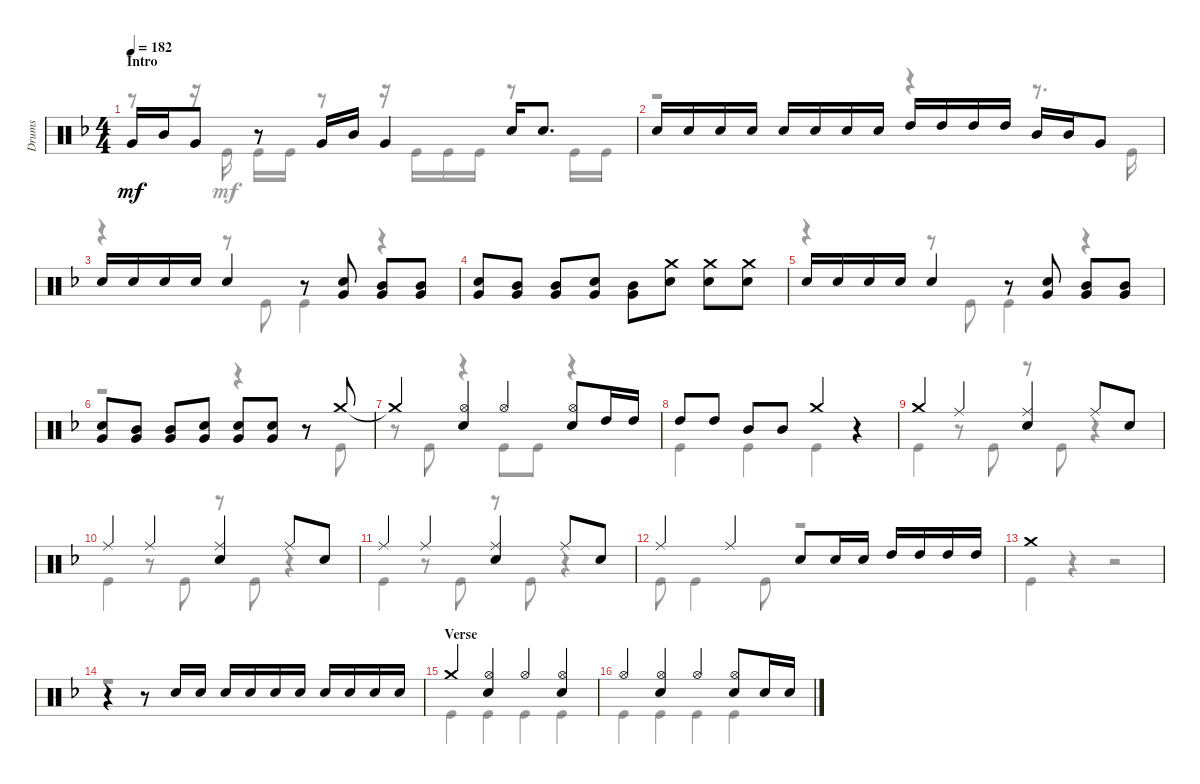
\track ("Drums" "Drums") {instrument percussion}
\staff {score}
\articulation defaults
\voice
\ts (4 4)
\section ("" "Intro")
\tempo 182
\clef neutral
\ks f "Very Low Tom (hit)".16{dy mf} "Mid Tom (hit)".16 "Very Low Tom (hit)".8
r.8 "Very Low Tom (hit)".16 "Mid Tom (hit)".16 "Very Low Tom (hit)".4 "Snare (hit) 2".16 "Snare (hit) 2".8{d} |
"Snare (hit) 2".16 "Snare (hit) 2".16 "Snare (hit) 2".16 "Snare (hit) 2".16 "Snare (hit) 2".16 "Snare (hit) 2".16 "Snare (hit) 2".16 "Snare (hit) 2".16 "High Tom (hit)".16 "High Tom (hit)".16 "High Tom (hit)".16 "High Tom (hit)".16 "Mid Tom (hit)".16 "Mid Tom (hit)".16 "Very Low Tom (hit)".8 |
"Snare (hit) 2".16 "Snare (hit) 2".16 "Snare (hit) 2".16 "Snare (hit) 2".16 "Snare (hit) 2".4 r.8 ("Snare (hit) 2" "Very Low Tom (hit)").8 ("Mid Tom (hit)" "Very Low Tom (hit)").8 ("Mid Tom (hit)" "Very Low Tom (hit)").8 |
("Very Low Tom (hit)" "Snare (hit) 2").8 ("Very Low Tom (hit)" "Mid Tom (hit)").8 ("Mid Tom (hit)" "Very Low Tom (hit)").8 ("Very Low Tom (hit)" "Snare (hit) 2").8 ("Very Low Tom (hit)" "Mid Tom (hit)").8 ("Snare (hit) 2" "Crash medium (hit)").8 ("Snare (hit) 2" "Crash medium (hit)").8 ("Snare (hit) 2" "Crash medium (hit)").8 |
"Snare (hit) 2".16 "Snare (hit) 2".16 "Snare (hit) 2".16 "Snare (hit) 2".16 "Snare (hit) 2".4 r.8 ("Snare (hit) 2" "Very Low Tom (hit)").8 ("Very Low Tom (hit)" "Mid Tom (hit)").8 ("Mid Tom (hit)" "Very Low Tom (hit)").8 |
("Very Low Tom (hit)" "Snare (hit) 2").8 ("Mid Tom (hit)" "Very Low Tom (hit)").8 ("Mid Tom (hit)" "Very Low Tom (hit)").8 ("Very Low Tom (hit)" "Snare (hit) 2").8 ("Snare (hit) 2" "Very Low Tom (hit)").8 ("Very Low Tom (hit)" "Snare (hit) 2").8 r.8 "Crash medium (hit)".8 |
"Crash medium (hit)"{t}.4 ("Hi-Hat (open)" "Snare (hit) 2").4 "Hi-Hat (open)".4 ("Hi-Hat (open)" "Snare (hit) 2").8 "High Tom (hit)".16 "High Tom (hit)".16 |
"High Tom (hit)".8 "High Tom (hit)".8 "Mid Tom (hit)".8 "Mid Tom (hit)".8 "Crash medium (hit)".4 r.4 |
"Crash medium (hit)".4 "Ride (middle)".4 ("Ride (middle)" "Snare (hit) 2").4 "Ride (middle)".8 "Snare (hit) 2".8 |
"Ride (middle)".4 "Ride (middle)".4 ("Ride (middle)" "Snare (hit) 2").4 "Ride (middle)".8 "Snare (hit) 2".8 |
"Ride (middle)".4 "Ride (middle)".4 ("Ride (middle)" "Snare (hit) 2").4 "Ride (middle)".8 "Snare (hit) 2".8 |
"Ride (middle)".4 "Ride (middle)".4 "Snare (hit) 2".8 "Snare (hit) 2".16 "Snare (hit) 2".16 "High Tom (hit)".16 "High Tom (hit)".16 "High Tom (hit)".16 "High Tom (hit)".16 |
"Crash medium (hit)".1 |
r.4 r.8 "Snare (hit) 2".16 "Snare (hit) 2".16 "Snare (hit) 2".16 "Snare (hit) 2".16 "Snare (hit) 2".16 "Snare (hit) 2".16 "Snare (hit) 2".16 "Snare (hit) 2".16 "Snare (hit) 2".16 "Snare (hit) 2".16 |
\section ("" "Verse")
"Crash medium (hit)".4 ("Hi-Hat (open)" "Snare (hit) 2").4 "Hi-Hat (open)".4 ("Hi-Hat (open)" "Snare (hit) 2").4 |
"Hi-Hat (open)".4 ("Hi-Hat (open)" "Snare (hit) 2").4 "Hi-Hat (open)".4 ("Hi-Hat (open)" "Snare (hit) 2").8 "Snare (hit) 2".16 "Snare (hit) 2".16
\voice
\clef neutral
\ottava regular
\simile none
\ks f
r.8{dy mf} r.16 "Kick (hit)".16 "Kick (hit)".16 "Kick (hit)".16 r.8 r.16 "Kick (hit)".16 "Kick (hit)".16 "Kick (hit)".16 r.8 "Kick (hit)".16 "Kick (hit)".16 |
r.2 r.4 r.8{d} "Kick (hit)".16 |
r.4 r.8 "Kick (hit)".8 "Kick (hit)".4 r.4 |
|
r.4 r.8 "Kick (hit)".8 "Kick (hit)".4 r.4 |
r.2 r.4 r.8 "Kick (hit)".8 |
r.8 "Kick (hit)".8 r.4 "Kick (hit)".8 "Kick (hit)".8 r.4 |
"Kick (hit)".4 "Kick (hit)".4 "Kick (hit)".4 r.4 |
"Kick (hit)".4 r.8 "Kick (hit)".8 r.8 "Kick (hit)".8 r.4 |
"Kick (hit)".4 r.8 "Kick (hit)".8 r.8 "Kick (hit)".8 r.4 |
"Kick (hit)".4 r.8 "Kick (hit)".8 r.8 "Kick (hit)".8 r.4 |
"Kick (hit)".8 "Kick (hit)".4 "Kick (hit)".8 r.2 |
"Kick (hit)".4 r.4 r.2 |
r.1 |
"Kick (hit)".4 "Kick (hit)".4 "Kick (hit)".4 "Kick (hit)".4 |
"Kick (hit)".4 "Kick (hit)".4 "Kick (hit)".4 "Kick (hit)".4
